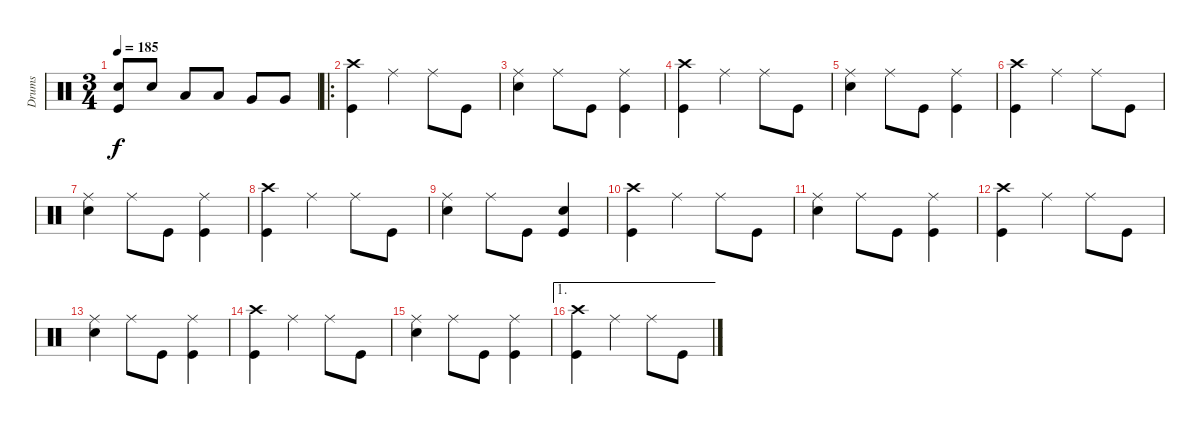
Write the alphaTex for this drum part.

\track ("Drums" "Drums") {instrument percussion}
\staff {score}
\articulation defaults
\ts (3 4)
\tempo 185
\clef neutral
\ks c
("Snare (hit) 2" "Kick (hit)").8{dy f} "Snare (hit) 2".8 "Low Tom (hit)".8 "Low Tom (hit)".8 "Very Low Tom (hit)".8 "Very Low Tom (hit)".8 |
\ro
("Crash high (hit)" "Kick (hit)").4 "Ride (middle)".4 "Ride (middle)".8 "Kick (hit)".8 |
("Ride (middle)" "Snare (hit) 2").4 "Ride (middle)".8 "Kick (hit)".8 ("Ride (middle)" "Kick (hit)").4 |
("Crash high (hit)" "Kick (hit)").4 "Ride (middle)".4 "Ride (middle)".8 "Kick (hit)".8 |
("Ride (middle)" "Snare (hit) 2").4 "Ride (middle)".8 "Kick (hit)".8 ("Ride (middle)" "Kick (hit)").4 |
("Crash high (hit)" "Kick (hit)").4 "Ride (middle)".4 "Ride (middle)".8 "Kick (hit)".8 |
("Ride (middle)" "Snare (hit) 2").4 "Ride (middle)".8 "Kick (hit)".8 ("Ride (middle)" "Kick (hit)").4 |
("Crash high (hit)" "Kick (hit)").4 "Ride (middle)".4 "Ride (middle)".8 "Kick (hit)".8 |
("Ride (middle)" "Snare (hit) 2").4 "Ride (middle)".8 "Kick (hit)".8 ("Snare (hit) 2" "Kick (hit)").4 |
("Crash high (hit)" "Kick (hit)").4 "Ride (middle)".4 "Ride (middle)".8 "Kick (hit)".8 |
("Ride (middle)" "Snare (hit) 2").4 "Ride (middle)".8 "Kick (hit)".8 ("Ride (middle)" "Kick (hit)").4 |
("Crash high (hit)" "Kick (hit)").4 "Ride (middle)".4 "Ride (middle)".8 "Kick (hit)".8 |
("Ride (middle)" "Snare (hit) 2").4 "Ride (middle)".8 "Kick (hit)".8 ("Ride (middle)" "Kick (hit)").4 |
("Crash high (hit)" "Kick (hit)").4 "Ride (middle)".4 "Ride (middle)".8 "Kick (hit)".8 |
("Ride (middle)" "Snare (hit) 2").4 "Ride (middle)".8 "Kick (hit)".8 ("Ride (middle)" "Kick (hit)").4 |
\ae 1
("Crash high (hit)" "Kick (hit)").4 "Ride (middle)".4 "Ride (middle)".8 "Kick (hit)".8
